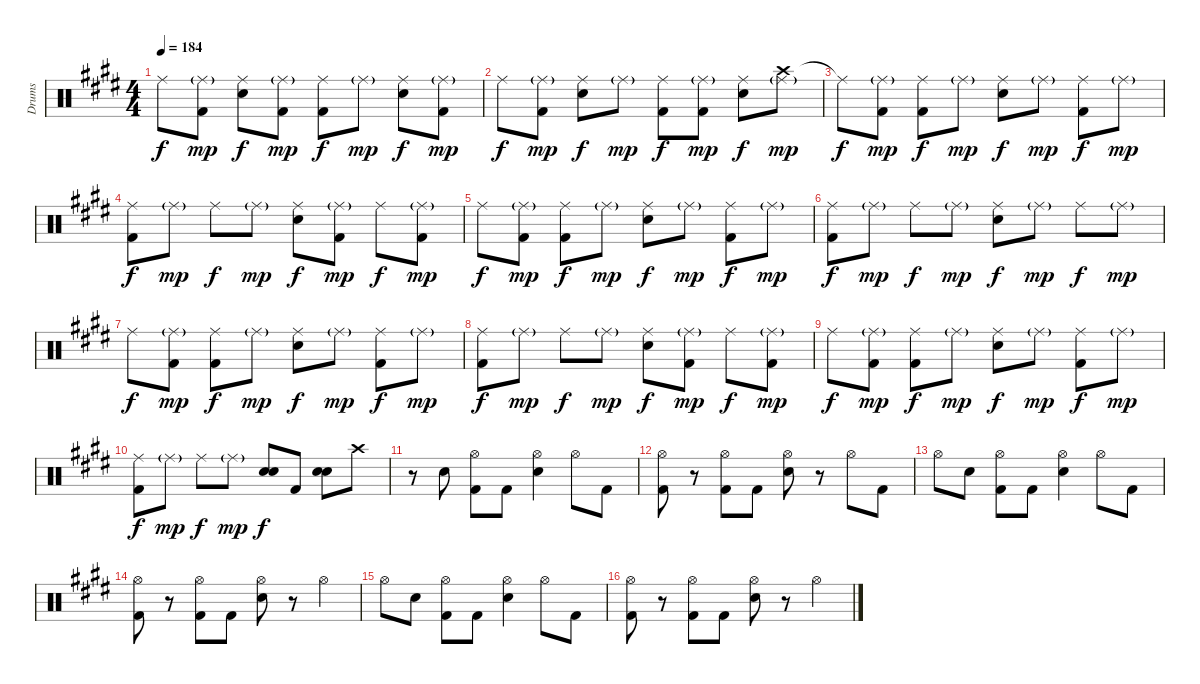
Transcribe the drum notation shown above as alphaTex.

\track ("Drums" "Drums") {instrument percussion}
\staff {score}
\articulation defaults
\ts (4 4)
\tempo 184
\clef neutral
\ks c#minor "Ride (middle)".8{dy f}
("Ride (middle)"{g} "Kick (hit) 2").8{dy mp} ("Ride (middle)" "Snare (hit) 2").8{dy f} ("Ride (middle)"{g} "Kick (hit) 2").8{dy mp} ("Ride (middle)" "Kick (hit) 2").8{dy f} "Ride (middle)"{g}.8{dy mp} ("Ride (middle)" "Snare (hit) 2").8{dy f} ("Ride (middle)"{g} "Kick (hit) 2").8{dy mp} |
"Ride (middle)".8{dy f} ("Ride (middle)"{g} "Kick (hit) 2").8{dy mp} ("Ride (middle)" "Snare (hit) 2").8{dy f} "Ride (middle)"{g}.8{dy mp} ("Ride (middle)" "Kick (hit) 2").8{dy f} ("Ride (middle)"{g} "Kick (hit) 2").8{dy mp} ("Ride (middle)" "Snare (hit) 2").8{dy f} ("Crash high (hit)" "Ride (middle)"{g}).8{dy mp} |
"Ride (middle)"{t}.8{dy f} ("Ride (middle)"{g} "Kick (hit) 2").8{dy mp} ("Ride (middle)" "Kick (hit) 2").8{dy f} "Ride (middle)"{g}.8{dy mp} ("Ride (middle)" "Snare (hit) 2").8{dy f} "Ride (middle)"{g}.8{dy mp} ("Ride (middle)" "Kick (hit) 2").8{dy f} "Ride (middle)"{g}.8{dy mp} |
("Ride (middle)" "Kick (hit) 2").8{dy f} "Ride (middle)"{g}.8{dy mp} "Ride (middle)".8{dy f} "Ride (middle)"{g}.8{dy mp} ("Ride (middle)" "Snare (hit) 2").8{dy f} ("Ride (middle)"{g} "Kick (hit) 2").8{dy mp} "Ride (middle)".8{dy f} ("Ride (middle)"{g} "Kick (hit) 2").8{dy mp} |
"Ride (middle)".8{dy f} ("Ride (middle)"{g} "Kick (hit) 2").8{dy mp} ("Ride (middle)" "Kick (hit) 2").8{dy f} "Ride (middle)"{g}.8{dy mp} ("Ride (middle)" "Snare (hit) 2").8{dy f} "Ride (middle)"{g}.8{dy mp} ("Ride (middle)" "Kick (hit) 2").8{dy f} "Ride (middle)"{g}.8{dy mp} |
("Ride (middle)" "Kick (hit) 2").8{dy f} "Ride (middle)"{g}.8{dy mp} "Ride (middle)".8{dy f} "Ride (middle)"{g}.8{dy mp} ("Ride (middle)" "Snare (hit) 2").8{dy f} "Ride (middle)"{g}.8{dy mp} "Ride (middle)".8{dy f} "Ride (middle)"{g}.8{dy mp} |
"Ride (middle)".8{dy f} ("Ride (middle)"{g} "Kick (hit) 2").8{dy mp} ("Ride (middle)" "Kick (hit) 2").8{dy f} "Ride (middle)"{g}.8{dy mp} ("Ride (middle)" "Snare (hit) 2").8{dy f} "Ride (middle)"{g}.8{dy mp} ("Ride (middle)" "Kick (hit) 2").8{dy f} "Ride (middle)"{g}.8{dy mp} |
("Ride (middle)" "Kick (hit) 2").8{dy f} "Ride (middle)"{g}.8{dy mp} "Ride (middle)".8{dy f} "Ride (middle)"{g}.8{dy mp} ("Ride (middle)" "Snare (hit) 2").8{dy f} ("Ride (middle)"{g} "Kick (hit) 2").8{dy mp} "Ride (middle)".8{dy f} ("Ride (middle)"{g} "Kick (hit) 2").8{dy mp} |
"Ride (middle)".8{dy f} ("Ride (middle)"{g} "Kick (hit) 2").8{dy mp} ("Ride (middle)" "Kick (hit) 2").8{dy f} "Ride (middle)"{g}.8{dy mp} ("Ride (middle)" "Snare (hit) 2").8{dy f} "Ride (middle)"{g}.8{dy mp} ("Ride (middle)" "Kick (hit) 2").8{dy f} "Ride (middle)"{g}.8{dy mp} |
("Ride (middle)" "Kick (hit) 2").8{dy f} "Ride (middle)"{g}.8{dy mp} "Ride (middle)".8{dy f} "Ride (middle)"{g}.8{dy mp} ("Snare (hit) 2" "Electric Snare (hit)").8{dy f} "Kick (hit) 2".8 ("Snare (hit) 2" "Electric Snare (hit)").8 "Crash high (hit)".8 |
r.8 "Snare (hit) 2".8 ("Hi-Hat (open)" "Kick (hit) 2").8 "Kick (hit) 2".8 ("Hi-Hat (open)" "Snare (hit) 2").4 "Hi-Hat (open)".8 "Kick (hit) 2".8 |
("Hi-Hat (open)" "Kick (hit) 2").8 r.8 ("Hi-Hat (open)" "Kick (hit) 2").8 "Kick (hit) 2".8 ("Hi-Hat (open)" "Snare (hit) 2").8 r.8 "Hi-Hat (open)".8 "Kick (hit) 2".8 |
"Hi-Hat (open)".8 "Snare (hit) 2".8 ("Hi-Hat (open)" "Kick (hit) 2").8 "Kick (hit) 2".8 ("Hi-Hat (open)" "Snare (hit) 2").4 "Hi-Hat (open)".8 "Kick (hit) 2".8 |
("Hi-Hat (open)" "Kick (hit) 2").8 r.8 ("Hi-Hat (open)" "Kick (hit) 2").8 "Kick (hit) 2".8 ("Hi-Hat (open)" "Snare (hit) 2").8 r.8 "Hi-Hat (open)".4 |
"Hi-Hat (open)".8 "Snare (hit) 2".8 ("Hi-Hat (open)" "Kick (hit) 2").8 "Kick (hit) 2".8 ("Hi-Hat (open)" "Snare (hit) 2").4 "Hi-Hat (open)".8 "Kick (hit) 2".8 |
("Hi-Hat (open)" "Kick (hit) 2").8 r.8 ("Hi-Hat (open)" "Kick (hit) 2").8 "Kick (hit) 2".8 ("Hi-Hat (open)" "Snare (hit) 2").8 r.8 "Hi-Hat (open)".4
